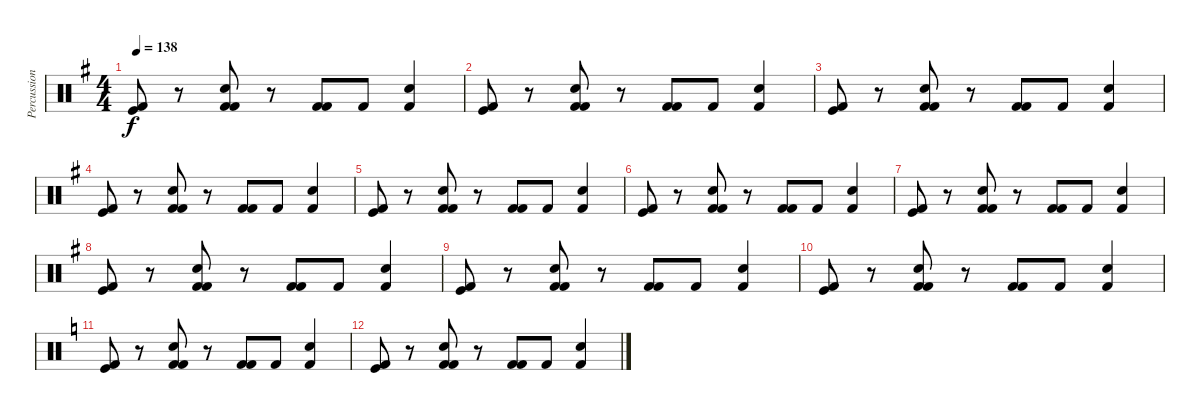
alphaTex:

\track ("Percussion" "Percussion") {instrument percussion}
\staff {score}
\articulation defaults
\ts (4 4)
\tempo 138
\clef neutral
\ks g
("Kick (hit) 2" "Kick (hit)").8{dy f} r.8 ("Kick (hit) 2" "Electric Snare (hit)" "Kick (hit) 2").8 r.8 ("Kick (hit) 2" "Kick (hit) 2").8 "Kick (hit) 2".8 ("Kick (hit) 2" "Electric Snare (hit)").4 |
("Kick (hit) 2" "Kick (hit)").8 r.8 ("Kick (hit) 2" "Electric Snare (hit)" "Kick (hit) 2").8 r.8 ("Kick (hit) 2" "Kick (hit) 2").8 "Kick (hit) 2".8 ("Kick (hit) 2" "Electric Snare (hit)").4 |
("Kick (hit) 2" "Kick (hit)").8 r.8 ("Kick (hit) 2" "Electric Snare (hit)" "Kick (hit) 2").8 r.8 ("Kick (hit) 2" "Kick (hit) 2").8 "Kick (hit) 2".8 ("Kick (hit) 2" "Electric Snare (hit)").4 |
("Kick (hit) 2" "Kick (hit)").8 r.8 ("Kick (hit) 2" "Electric Snare (hit)" "Kick (hit) 2").8 r.8 ("Kick (hit) 2" "Kick (hit) 2").8 "Kick (hit) 2".8 ("Kick (hit) 2" "Electric Snare (hit)").4 |
("Kick (hit) 2" "Kick (hit)").8 r.8 ("Kick (hit) 2" "Electric Snare (hit)" "Kick (hit) 2").8 r.8 ("Kick (hit) 2" "Kick (hit) 2").8 "Kick (hit) 2".8 ("Kick (hit) 2" "Electric Snare (hit)").4 |
("Kick (hit) 2" "Kick (hit)").8 r.8 ("Kick (hit) 2" "Electric Snare (hit)" "Kick (hit) 2").8 r.8 ("Kick (hit) 2" "Kick (hit) 2").8 "Kick (hit) 2".8 ("Kick (hit) 2" "Electric Snare (hit)").4 |
("Kick (hit) 2" "Kick (hit)").8 r.8 ("Kick (hit) 2" "Electric Snare (hit)" "Kick (hit) 2").8 r.8 ("Kick (hit) 2" "Kick (hit) 2").8 "Kick (hit) 2".8 ("Kick (hit) 2" "Electric Snare (hit)").4 |
("Kick (hit) 2" "Kick (hit)").8 r.8 ("Kick (hit) 2" "Electric Snare (hit)" "Kick (hit) 2").8 r.8 ("Kick (hit) 2" "Kick (hit) 2").8 "Kick (hit) 2".8 ("Kick (hit) 2" "Electric Snare (hit)").4 |
("Kick (hit) 2" "Kick (hit)").8 r.8 ("Kick (hit) 2" "Electric Snare (hit)" "Kick (hit) 2").8 r.8 ("Kick (hit) 2" "Kick (hit) 2").8 "Kick (hit) 2".8 ("Kick (hit) 2" "Electric Snare (hit)").4 |
("Kick (hit) 2" "Kick (hit)").8 r.8 ("Kick (hit) 2" "Electric Snare (hit)" "Kick (hit) 2").8 r.8 ("Kick (hit) 2" "Kick (hit) 2").8 "Kick (hit) 2".8 ("Kick (hit) 2" "Electric Snare (hit)").4 |
\ks c
("Kick (hit) 2" "Kick (hit)").8 r.8 ("Kick (hit) 2" "Electric Snare (hit)" "Kick (hit) 2").8 r.8 ("Kick (hit) 2" "Kick (hit) 2").8 "Kick (hit) 2".8 ("Kick (hit) 2" "Electric Snare (hit)").4 |
("Kick (hit) 2" "Kick (hit)").8 r.8 ("Kick (hit) 2" "Electric Snare (hit)" "Kick (hit) 2").8 r.8 ("Kick (hit) 2" "Kick (hit) 2").8 "Kick (hit) 2".8 ("Kick (hit) 2" "Electric Snare (hit)").4
